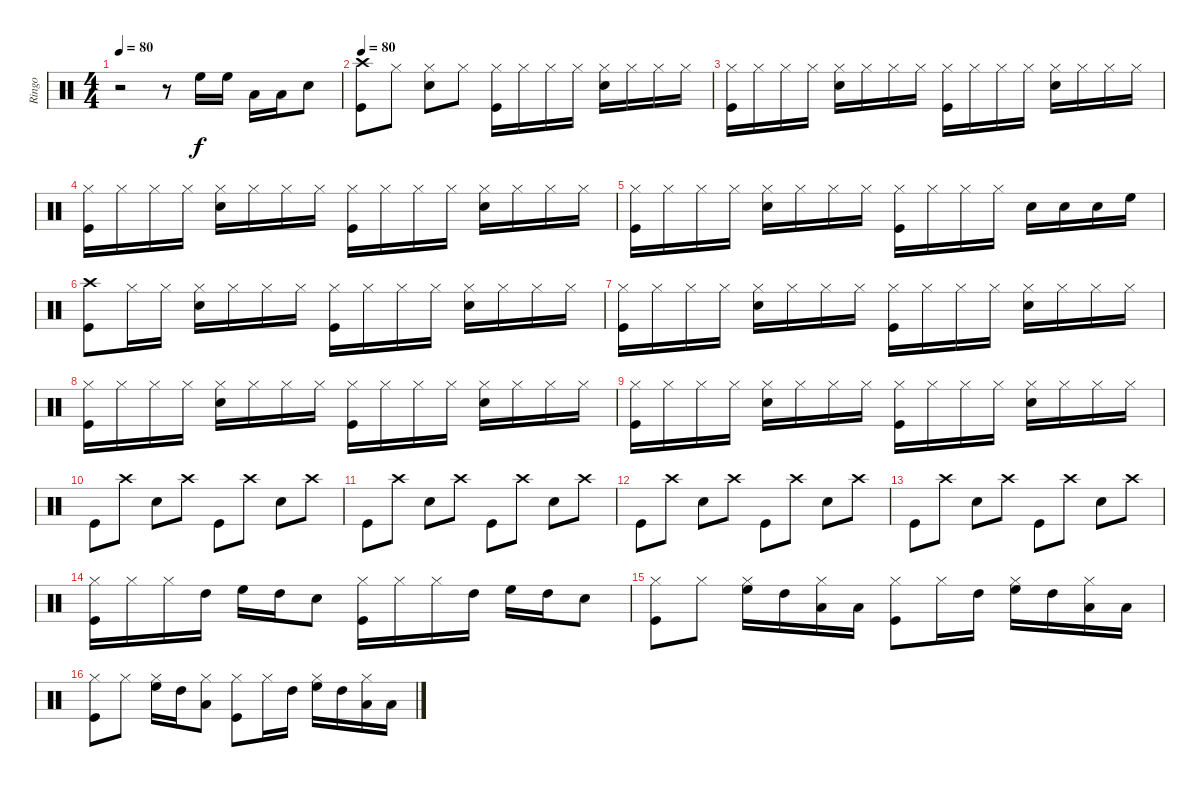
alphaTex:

\track ("Ringo" "Ringo") {instrument percussion}
\staff {score}
\articulation defaults
\ts (4 4)
\tempo 80
\clef neutral
\ks c
r.2{dy f} r.8 "High Floor Tom (hit)".16 "High Floor Tom (hit)".16 "Low Tom (hit)".16 "Low Tom (hit)".16 "Snare (hit) 2".8 |
\tempo 80
("Crash high (hit)" "Kick (hit)").8 "Hi-Hat (closed)".8 ("Hi-Hat (closed)" "Snare (hit) 2").8 "Hi-Hat (closed)".8 ("Hi-Hat (closed)" "Kick (hit)").16 "Hi-Hat (closed)".16 "Hi-Hat (closed)".16 "Hi-Hat (closed)".16 ("Hi-Hat (closed)" "Snare (hit) 2").16 "Hi-Hat (closed)".16 "Hi-Hat (closed)".16 "Hi-Hat (closed)".16 |
("Hi-Hat (closed)" "Kick (hit)").16 "Hi-Hat (closed)".16 "Hi-Hat (closed)".16 "Hi-Hat (closed)".16 ("Hi-Hat (closed)" "Snare (hit) 2").16 "Hi-Hat (closed)".16 "Hi-Hat (closed)".16 "Hi-Hat (closed)".16 ("Hi-Hat (closed)" "Kick (hit)").16 "Hi-Hat (closed)".16 "Hi-Hat (closed)".16 "Hi-Hat (closed)".16 ("Hi-Hat (closed)" "Snare (hit) 2").16 "Hi-Hat (closed)".16 "Hi-Hat (closed)".16 "Hi-Hat (closed)".16 |
("Hi-Hat (closed)" "Kick (hit)").16 "Hi-Hat (closed)".16 "Hi-Hat (closed)".16 "Hi-Hat (closed)".16 ("Hi-Hat (closed)" "Snare (hit) 2").16 "Hi-Hat (closed)".16 "Hi-Hat (closed)".16 "Hi-Hat (closed)".16 ("Hi-Hat (closed)" "Kick (hit)").16 "Hi-Hat (closed)".16 "Hi-Hat (closed)".16 "Hi-Hat (closed)".16 ("Hi-Hat (closed)" "Snare (hit) 2").16 "Hi-Hat (closed)".16 "Hi-Hat (closed)".16 "Hi-Hat (closed)".16 |
("Hi-Hat (closed)" "Kick (hit)").16 "Hi-Hat (closed)".16 "Hi-Hat (closed)".16 "Hi-Hat (closed)".16 ("Hi-Hat (closed)" "Snare (hit) 2").16 "Hi-Hat (closed)".16 "Hi-Hat (closed)".16 "Hi-Hat (closed)".16 ("Hi-Hat (closed)" "Kick (hit)").16 "Hi-Hat (closed)".16 "Hi-Hat (closed)".16 "Hi-Hat (closed)".16 "Snare (hit) 2".16 "Snare (hit) 2".16 "Snare (hit) 2".16 "High Floor Tom (hit)".16 |
("Crash high (hit)" "Kick (hit)").8 "Hi-Hat (closed)".16 "Hi-Hat (closed)".16 ("Hi-Hat (closed)" "Snare (hit) 2").16 "Hi-Hat (closed)".16 "Hi-Hat (closed)".16 "Hi-Hat (closed)".16 ("Hi-Hat (closed)" "Kick (hit)").16 "Hi-Hat (closed)".16 "Hi-Hat (closed)".16 "Hi-Hat (closed)".16 ("Hi-Hat (closed)" "Snare (hit) 2").16 "Hi-Hat (closed)".16 "Hi-Hat (closed)".16 "Hi-Hat (closed)".16 |
("Hi-Hat (closed)" "Kick (hit)").16 "Hi-Hat (closed)".16 "Hi-Hat (closed)".16 "Hi-Hat (closed)".16 ("Hi-Hat (closed)" "Snare (hit) 2").16 "Hi-Hat (closed)".16 "Hi-Hat (closed)".16 "Hi-Hat (closed)".16 ("Hi-Hat (closed)" "Kick (hit)").16 "Hi-Hat (closed)".16 "Hi-Hat (closed)".16 "Hi-Hat (closed)".16 ("Hi-Hat (closed)" "Snare (hit) 2").16 "Hi-Hat (closed)".16 "Hi-Hat (closed)".16 "Hi-Hat (closed)".16 |
("Hi-Hat (closed)" "Kick (hit)").16 "Hi-Hat (closed)".16 "Hi-Hat (closed)".16 "Hi-Hat (closed)".16 ("Hi-Hat (closed)" "Snare (hit) 2").16 "Hi-Hat (closed)".16 "Hi-Hat (closed)".16 "Hi-Hat (closed)".16 ("Hi-Hat (closed)" "Kick (hit)").16 "Hi-Hat (closed)".16 "Hi-Hat (closed)".16 "Hi-Hat (closed)".16 ("Hi-Hat (closed)" "Snare (hit) 2").16 "Hi-Hat (closed)".16 "Hi-Hat (closed)".16 "Hi-Hat (closed)".16 |
("Hi-Hat (closed)" "Kick (hit)").16 "Hi-Hat (closed)".16 "Hi-Hat (closed)".16 "Hi-Hat (closed)".16 ("Hi-Hat (closed)" "Snare (hit) 2").16 "Hi-Hat (closed)".16 "Hi-Hat (closed)".16 "Hi-Hat (closed)".16 ("Hi-Hat (closed)" "Kick (hit)").16 "Hi-Hat (closed)".16 "Hi-Hat (closed)".16 "Hi-Hat (closed)".16 ("Hi-Hat (closed)" "Snare (hit) 2").16 "Hi-Hat (closed)".16 "Hi-Hat (closed)".16 "Hi-Hat (closed)".16 |
"Kick (hit)".8 "Crash high (hit)".8 "Snare (hit) 2".8 "Crash high (hit)".8 "Kick (hit)".8 "Crash high (hit)".8 "Snare (hit) 2".8 "Crash high (hit)".8 |
"Kick (hit)".8 "Crash high (hit)".8 "Snare (hit) 2".8 "Crash high (hit)".8 "Kick (hit)".8 "Crash high (hit)".8 "Snare (hit) 2".8 "Crash high (hit)".8 |
"Kick (hit)".8 "Crash high (hit)".8 "Snare (hit) 2".8 "Crash high (hit)".8 "Kick (hit)".8 "Crash high (hit)".8 "Snare (hit) 2".8 "Crash high (hit)".8 |
"Kick (hit)".8 "Crash high (hit)".8 "Snare (hit) 2".8 "Crash high (hit)".8 "Kick (hit)".8 "Crash high (hit)".8 "Snare (hit) 2".8 "Crash high (hit)".8 |
("Hi-Hat (closed)" "Kick (hit)").16 "Hi-Hat (closed)".16 "Hi-Hat (closed)".16 "High Tom (hit)".16 "High Floor Tom (hit)".16 "High Tom (hit)".16 "Snare (hit) 2".8 ("Hi-Hat (closed)" "Kick (hit)").16 "Hi-Hat (closed)".16 "Hi-Hat (closed)".16 "High Tom (hit)".16 "High Floor Tom (hit)".16 "High Tom (hit)".16 "Snare (hit) 2".8 |
("Hi-Hat (closed)" "Kick (hit)").8 "Hi-Hat (closed)".8 ("Hi-Hat (closed)" "High Floor Tom (hit)").16 "High Tom (hit)".16 ("Hi-Hat (closed)" "Low Tom (hit)").16 "Low Tom (hit)".16 ("Hi-Hat (closed)" "Kick (hit)").8 "Hi-Hat (closed)".16 "High Tom (hit)".16 ("Hi-Hat (closed)" "High Floor Tom (hit)").16 "High Tom (hit)".16 ("Hi-Hat (closed)" "Low Tom (hit)").16 "Low Tom (hit)".16 |
("Hi-Hat (closed)" "Kick (hit)").8 "Hi-Hat (closed)".8 ("Hi-Hat (closed)" "High Floor Tom (hit)").16 "High Tom (hit)".16 ("Hi-Hat (closed)" "Low Tom (hit)").8 ("Hi-Hat (closed)" "Kick (hit)").8 "Hi-Hat (closed)".16 "High Tom (hit)".16 ("Hi-Hat (closed)" "High Floor Tom (hit)").16 "High Tom (hit)".16 ("Hi-Hat (closed)" "Low Tom (hit)").16 "Low Tom (hit)".16
